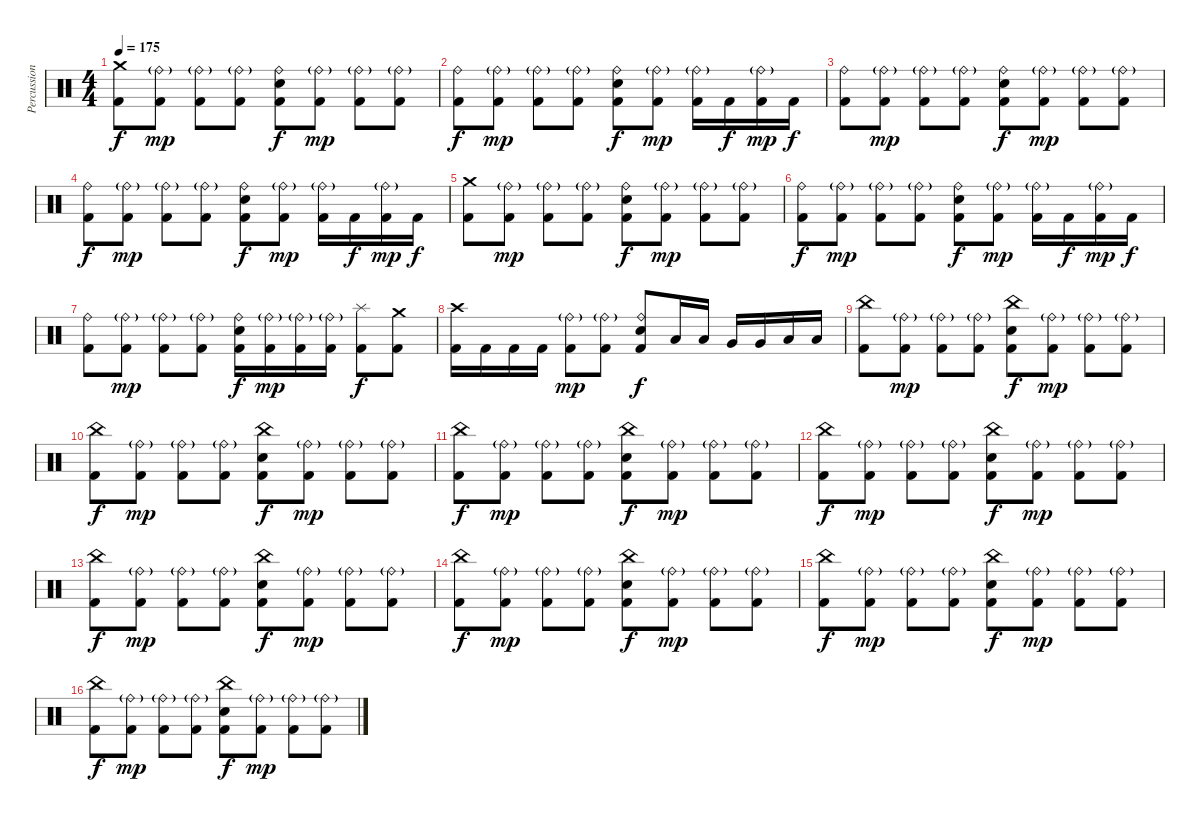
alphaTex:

\track ("Percussion" "Percussion") {instrument percussion}
\staff {score}
\articulation defaults
\ts (4 4)
\tempo 175
\clef neutral
\ks c
("Crash medium (hit)" "Kick (hit) 2").8{dy f} ("Ride (bell)"{g} "Kick (hit) 2").8{dy mp} ("Ride (bell)"{g} "Kick (hit) 2").8 ("Ride (bell)"{g} "Kick (hit) 2").8 ("Ride (bell)" "Electric Snare (hit)" "Kick (hit) 2").8{dy f} ("Ride (bell)"{g} "Kick (hit) 2").8{dy mp} ("Ride (bell)"{g} "Kick (hit) 2").8 ("Ride (bell)"{g} "Kick (hit) 2").8 |
("Ride (bell)" "Kick (hit) 2").8{dy f} ("Ride (bell)"{g} "Kick (hit) 2").8{dy mp} ("Ride (bell)"{g} "Kick (hit) 2").8 ("Ride (bell)"{g} "Kick (hit) 2").8 ("Ride (bell)" "Electric Snare (hit)" "Kick (hit) 2").8{dy f} ("Ride (bell)"{g} "Kick (hit) 2").8{dy mp} ("Ride (bell)"{g} "Kick (hit) 2").16 "Kick (hit) 2".16{dy f} ("Ride (bell)"{g} "Kick (hit) 2").16{dy mp} "Kick (hit) 2".16{dy f} |
("Ride (bell)" "Kick (hit) 2").8 ("Ride (bell)"{g} "Kick (hit) 2").8{dy mp} ("Ride (bell)"{g} "Kick (hit) 2").8 ("Ride (bell)"{g} "Kick (hit) 2").8 ("Ride (bell)" "Electric Snare (hit)" "Kick (hit) 2").8{dy f} ("Ride (bell)"{g} "Kick (hit) 2").8{dy mp} ("Ride (bell)"{g} "Kick (hit) 2").8 ("Ride (bell)"{g} "Kick (hit) 2").8 |
("Ride (bell)" "Kick (hit) 2").8{dy f} ("Ride (bell)"{g} "Kick (hit) 2").8{dy mp} ("Ride (bell)"{g} "Kick (hit) 2").8 ("Ride (bell)"{g} "Kick (hit) 2").8 ("Ride (bell)" "Electric Snare (hit)" "Kick (hit) 2").8{dy f} ("Ride (bell)"{g} "Kick (hit) 2").8{dy mp} ("Ride (bell)"{g} "Kick (hit) 2").16 "Kick (hit) 2".16{dy f} ("Ride (bell)"{g} "Kick (hit) 2").16{dy mp} "Kick (hit) 2".16{dy f} |
("Crash medium (hit)" "Kick (hit) 2").8 ("Ride (bell)"{g} "Kick (hit) 2").8{dy mp} ("Ride (bell)"{g} "Kick (hit) 2").8 ("Ride (bell)"{g} "Kick (hit) 2").8 ("Ride (bell)" "Electric Snare (hit)" "Kick (hit) 2").8{dy f} ("Ride (bell)"{g} "Kick (hit) 2").8{dy mp} ("Ride (bell)"{g} "Kick (hit) 2").8 ("Ride (bell)"{g} "Kick (hit) 2").8 |
("Ride (bell)" "Kick (hit) 2").8{dy f} ("Ride (bell)"{g} "Kick (hit) 2").8{dy mp} ("Ride (bell)"{g} "Kick (hit) 2").8 ("Ride (bell)"{g} "Kick (hit) 2").8 ("Ride (bell)" "Electric Snare (hit)" "Kick (hit) 2").8{dy f} ("Ride (bell)"{g} "Kick (hit) 2").8{dy mp} ("Ride (bell)"{g} "Kick (hit) 2").16 "Kick (hit) 2".16{dy f} ("Ride (bell)"{g} "Kick (hit) 2").16{dy mp} "Kick (hit) 2".16{dy f} |
("Ride (bell)" "Kick (hit) 2").8 ("Ride (bell)"{g} "Kick (hit) 2").8{dy mp} ("Ride (bell)"{g} "Kick (hit) 2").8 ("Ride (bell)"{g} "Kick (hit) 2").8 ("Ride (bell)" "Electric Snare (hit)" "Kick (hit) 2").16{dy f} ("Ride (bell)"{g} "Kick (hit) 2").16{dy mp} ("Ride (bell)"{g} "Kick (hit) 2").16 ("Ride (bell)"{g} "Kick (hit) 2").16 ("Splash (hit)" "Kick (hit) 2").8{dy f} ("Crash medium (hit)" "Kick (hit) 2").8 |
("Crash high (hit)" "Kick (hit) 2").16 "Kick (hit) 2".16 "Kick (hit) 2".16 "Kick (hit) 2".16 ("Ride (bell)"{g} "Kick (hit) 2").8{dy mp} ("Ride (bell)"{g} "Kick (hit) 2").8 ("Ride (bell)" "Electric Snare (hit)" "Kick (hit) 2").8{dy f} "Low Tom (hit)".16 "Low Tom (hit)".16 "Very Low Tom (hit)".16 "Very Low Tom (hit)".16 "Low Floor Tom (hit)".16 "Low Floor Tom (hit)".16 |
("China (hit)" "Kick (hit) 2").8 ("Ride (bell)"{g} "Kick (hit) 2").8{dy mp} ("Ride (bell)"{g} "Kick (hit) 2").8 ("Ride (bell)"{g} "Kick (hit) 2").8 ("China (hit)" "Electric Snare (hit)" "Kick (hit) 2").8{dy f} ("Ride (bell)"{g} "Kick (hit) 2").8{dy mp} ("Ride (bell)"{g} "Kick (hit) 2").8 ("Ride (bell)"{g} "Kick (hit) 2").8 |
("China (hit)" "Kick (hit) 2").8{dy f} ("Ride (bell)"{g} "Kick (hit) 2").8{dy mp} ("Ride (bell)"{g} "Kick (hit) 2").8 ("Ride (bell)"{g} "Kick (hit) 2").8 ("China (hit)" "Electric Snare (hit)" "Kick (hit) 2").8{dy f} ("Ride (bell)"{g} "Kick (hit) 2").8{dy mp} ("Ride (bell)"{g} "Kick (hit) 2").8 ("Ride (bell)"{g} "Kick (hit) 2").8 |
("China (hit)" "Kick (hit) 2").8{dy f} ("Ride (bell)"{g} "Kick (hit) 2").8{dy mp} ("Ride (bell)"{g} "Kick (hit) 2").8 ("Ride (bell)"{g} "Kick (hit) 2").8 ("China (hit)" "Electric Snare (hit)" "Kick (hit) 2").8{dy f} ("Ride (bell)"{g} "Kick (hit) 2").8{dy mp} ("Ride (bell)"{g} "Kick (hit) 2").8 ("Ride (bell)"{g} "Kick (hit) 2").8 |
("China (hit)" "Kick (hit) 2").8{dy f} ("Ride (bell)"{g} "Kick (hit) 2").8{dy mp} ("Ride (bell)"{g} "Kick (hit) 2").8 ("Ride (bell)"{g} "Kick (hit) 2").8 ("China (hit)" "Electric Snare (hit)" "Kick (hit) 2").8{dy f} ("Ride (bell)"{g} "Kick (hit) 2").8{dy mp} ("Ride (bell)"{g} "Kick (hit) 2").8 ("Ride (bell)"{g} "Kick (hit) 2").8 |
("China (hit)" "Kick (hit) 2").8{dy f} ("Ride (bell)"{g} "Kick (hit) 2").8{dy mp} ("Ride (bell)"{g} "Kick (hit) 2").8 ("Ride (bell)"{g} "Kick (hit) 2").8 ("China (hit)" "Electric Snare (hit)" "Kick (hit) 2").8{dy f} ("Ride (bell)"{g} "Kick (hit) 2").8{dy mp} ("Ride (bell)"{g} "Kick (hit) 2").8 ("Ride (bell)"{g} "Kick (hit) 2").8 |
("China (hit)" "Kick (hit) 2").8{dy f} ("Ride (bell)"{g} "Kick (hit) 2").8{dy mp} ("Ride (bell)"{g} "Kick (hit) 2").8 ("Ride (bell)"{g} "Kick (hit) 2").8 ("China (hit)" "Electric Snare (hit)" "Kick (hit) 2").8{dy f} ("Ride (bell)"{g} "Kick (hit) 2").8{dy mp} ("Ride (bell)"{g} "Kick (hit) 2").8 ("Ride (bell)"{g} "Kick (hit) 2").8 |
("China (hit)" "Kick (hit) 2").8{dy f} ("Ride (bell)"{g} "Kick (hit) 2").8{dy mp} ("Ride (bell)"{g} "Kick (hit) 2").8 ("Ride (bell)"{g} "Kick (hit) 2").8 ("China (hit)" "Electric Snare (hit)" "Kick (hit) 2").8{dy f} ("Ride (bell)"{g} "Kick (hit) 2").8{dy mp} ("Ride (bell)"{g} "Kick (hit) 2").8 ("Ride (bell)"{g} "Kick (hit) 2").8 |
("China (hit)" "Kick (hit) 2").8{dy f} ("Ride (bell)"{g} "Kick (hit) 2").8{dy mp} ("Ride (bell)"{g} "Kick (hit) 2").8 ("Ride (bell)"{g} "Kick (hit) 2").8 ("China (hit)" "Electric Snare (hit)" "Kick (hit) 2").8{dy f} ("Ride (bell)"{g} "Kick (hit) 2").8{dy mp} ("Ride (bell)"{g} "Kick (hit) 2").8 ("Ride (bell)"{g} "Kick (hit) 2").8
